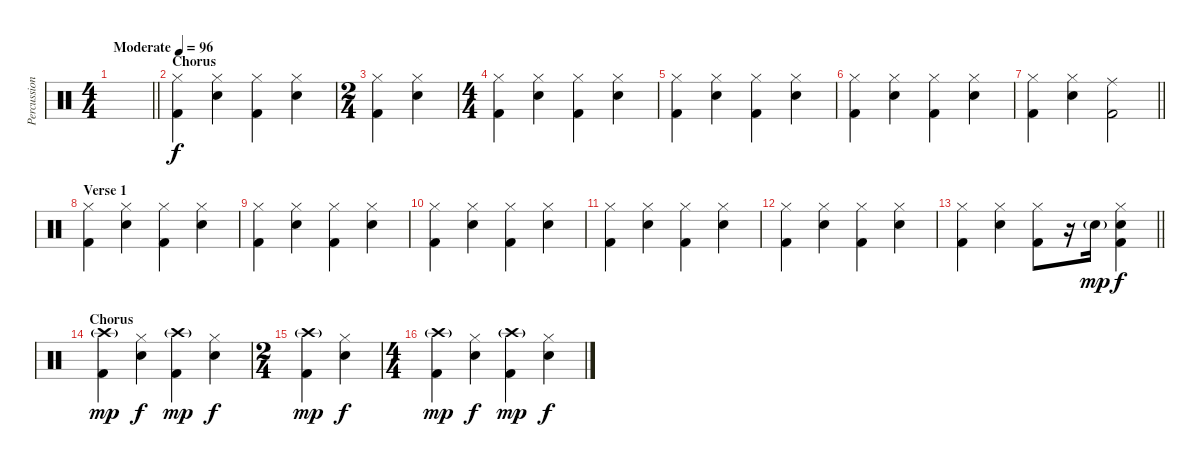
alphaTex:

\track ("Percussion" "Percussion") {instrument percussion}
\staff {score}
\articulation defaults
\ts (4 4)
\tempo (96 "Moderate")
\clef neutral
\barLineRight lightlight
\ks c
|
\section ("" "Chorus")
("Hi-Hat (closed)" "Kick (hit) 2").4 ("Hi-Hat (closed)" "Snare (hit) 2").4 ("Hi-Hat (closed)" "Kick (hit) 2").4 ("Hi-Hat (closed)" "Snare (hit) 2").4 |
\ts (2 4)
("Hi-Hat (closed)" "Kick (hit) 2").4 ("Hi-Hat (closed)" "Snare (hit) 2").4 |
\ts (4 4)
("Hi-Hat (closed)" "Kick (hit) 2").4 ("Hi-Hat (closed)" "Snare (hit) 2").4 ("Hi-Hat (closed)" "Kick (hit) 2").4 ("Hi-Hat (closed)" "Snare (hit) 2").4 |
("Hi-Hat (closed)" "Kick (hit) 2").4 ("Hi-Hat (closed)" "Snare (hit) 2").4 ("Hi-Hat (closed)" "Kick (hit) 2").4 ("Hi-Hat (closed)" "Snare (hit) 2").4 |
("Hi-Hat (closed)" "Kick (hit) 2").4 ("Hi-Hat (closed)" "Snare (hit) 2").4 ("Hi-Hat (closed)" "Kick (hit) 2").4 ("Hi-Hat (closed)" "Snare (hit) 2").4 |
\barLineRight lightlight
("Hi-Hat (closed)" "Kick (hit) 2").4 ("Hi-Hat (closed)" "Snare (hit) 2").4 ("Ride (middle)" "Kick (hit) 2").2 |
\section ("" "Verse 1")
("Hi-Hat (closed)" "Kick (hit) 2").4 ("Hi-Hat (closed)" "Snare (hit) 2").4 ("Hi-Hat (closed)" "Kick (hit) 2").4 ("Hi-Hat (closed)" "Snare (hit) 2").4 |
("Hi-Hat (closed)" "Kick (hit) 2").4 ("Hi-Hat (closed)" "Snare (hit) 2").4 ("Hi-Hat (closed)" "Kick (hit) 2").4 ("Hi-Hat (closed)" "Snare (hit) 2").4 |
("Hi-Hat (closed)" "Kick (hit) 2").4 ("Hi-Hat (closed)" "Snare (hit) 2").4 ("Hi-Hat (closed)" "Kick (hit) 2").4 ("Hi-Hat (closed)" "Snare (hit) 2").4 |
("Hi-Hat (closed)" "Kick (hit) 2").4 ("Hi-Hat (closed)" "Snare (hit) 2").4 ("Hi-Hat (closed)" "Kick (hit) 2").4 ("Hi-Hat (closed)" "Snare (hit) 2").4 |
("Hi-Hat (closed)" "Kick (hit) 2").4 ("Hi-Hat (closed)" "Snare (hit) 2").4 ("Hi-Hat (closed)" "Kick (hit) 2").4 ("Hi-Hat (closed)" "Snare (hit) 2").4 |
\barLineRight lightlight
("Hi-Hat (closed)" "Kick (hit) 2").4 ("Hi-Hat (closed)" "Snare (hit) 2").4 ("Hi-Hat (closed)" "Kick (hit) 2").8 r.16 "Snare (hit) 2"{g}.16{dy mp} ("Hi-Hat (closed)" "Snare (hit) 2" "Kick (hit) 2").4{dy f} |
\section ("" "Chorus")
("Crash high (hit)"{g} "Kick (hit) 2").4{dy mp} ("Hi-Hat (closed)" "Snare (hit) 2").4{dy f} ("Crash high (hit)"{g} "Kick (hit) 2").4{dy mp} ("Hi-Hat (closed)" "Snare (hit) 2").4{dy f} |
\ts (2 4)
("Crash high (hit)"{g} "Kick (hit) 2").4{dy mp} ("Hi-Hat (closed)" "Snare (hit) 2").4{dy f} |
\ts (4 4)
("Crash high (hit)"{g} "Kick (hit) 2").4{dy mp} ("Hi-Hat (closed)" "Snare (hit) 2").4{dy f} ("Crash high (hit)"{g} "Kick (hit) 2").4{dy mp} ("Hi-Hat (closed)" "Snare (hit) 2").4{dy f}
